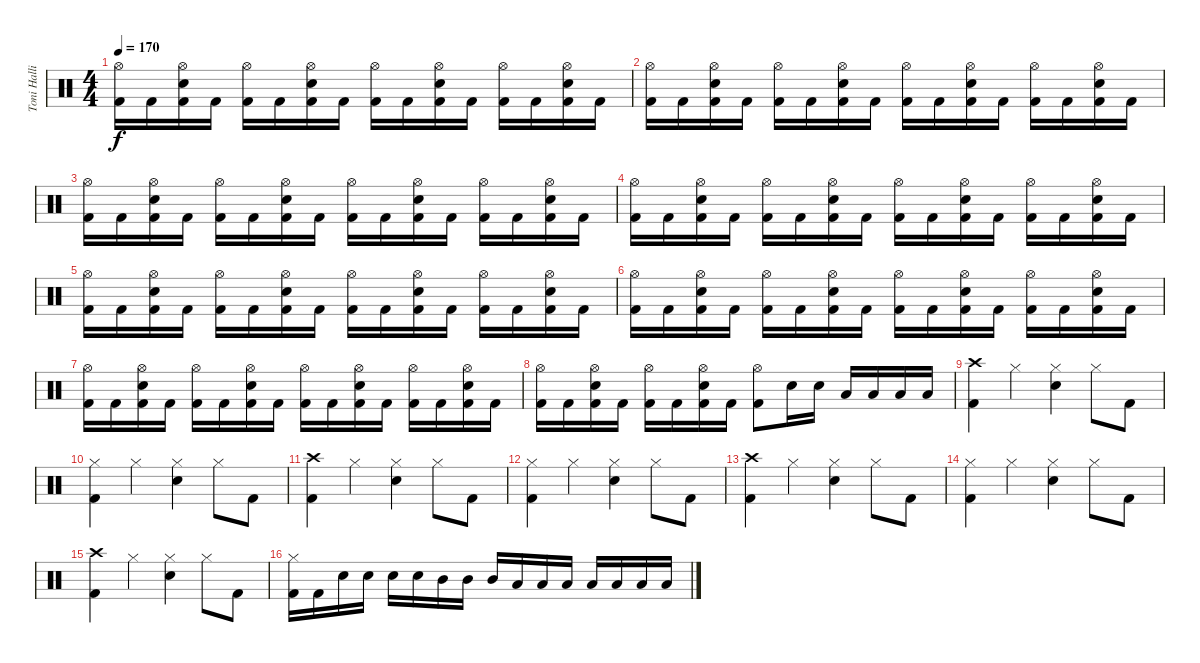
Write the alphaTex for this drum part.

\track ("Toni Hallio" "Toni Halli") {instrument percussion}
\staff {score}
\articulation defaults
\ts (4 4)
\tempo 170
\clef neutral
\ks c
("Hi-Hat (open)" "Kick (hit) 2").16{dy f} "Kick (hit) 2".16 ("Hi-Hat (open)" "Snare (hit) 2" "Kick (hit) 2").16 "Kick (hit) 2".16 ("Hi-Hat (open)" "Kick (hit) 2").16 "Kick (hit) 2".16 ("Hi-Hat (open)" "Snare (hit) 2" "Kick (hit) 2").16 "Kick (hit) 2".16 ("Hi-Hat (open)" "Kick (hit) 2").16 "Kick (hit) 2".16 ("Hi-Hat (open)" "Snare (hit) 2" "Kick (hit) 2").16 "Kick (hit) 2".16 ("Hi-Hat (open)" "Kick (hit) 2").16 "Kick (hit) 2".16 ("Hi-Hat (open)" "Snare (hit) 2" "Kick (hit) 2").16 "Kick (hit) 2".16 |
("Hi-Hat (open)" "Kick (hit) 2").16 "Kick (hit) 2".16 ("Hi-Hat (open)" "Snare (hit) 2" "Kick (hit) 2").16 "Kick (hit) 2".16 ("Hi-Hat (open)" "Kick (hit) 2").16 "Kick (hit) 2".16 ("Hi-Hat (open)" "Snare (hit) 2" "Kick (hit) 2").16 "Kick (hit) 2".16 ("Hi-Hat (open)" "Kick (hit) 2").16 "Kick (hit) 2".16 ("Hi-Hat (open)" "Snare (hit) 2" "Kick (hit) 2").16 "Kick (hit) 2".16 ("Hi-Hat (open)" "Kick (hit) 2").16 "Kick (hit) 2".16 ("Hi-Hat (open)" "Snare (hit) 2" "Kick (hit) 2").16 "Kick (hit) 2".16 |
("Hi-Hat (open)" "Kick (hit) 2").16 "Kick (hit) 2".16 ("Hi-Hat (open)" "Snare (hit) 2" "Kick (hit) 2").16 "Kick (hit) 2".16 ("Hi-Hat (open)" "Kick (hit) 2").16 "Kick (hit) 2".16 ("Hi-Hat (open)" "Snare (hit) 2" "Kick (hit) 2").16 "Kick (hit) 2".16 ("Hi-Hat (open)" "Kick (hit) 2").16 "Kick (hit) 2".16 ("Hi-Hat (open)" "Snare (hit) 2" "Kick (hit) 2").16 "Kick (hit) 2".16 ("Hi-Hat (open)" "Kick (hit) 2").16 "Kick (hit) 2".16 ("Hi-Hat (open)" "Snare (hit) 2" "Kick (hit) 2").16 "Kick (hit) 2".16 |
("Hi-Hat (open)" "Kick (hit) 2").16 "Kick (hit) 2".16 ("Hi-Hat (open)" "Snare (hit) 2" "Kick (hit) 2").16 "Kick (hit) 2".16 ("Hi-Hat (open)" "Kick (hit) 2").16 "Kick (hit) 2".16 ("Hi-Hat (open)" "Snare (hit) 2" "Kick (hit) 2").16 "Kick (hit) 2".16 ("Hi-Hat (open)" "Kick (hit) 2").16 "Kick (hit) 2".16 ("Hi-Hat (open)" "Snare (hit) 2" "Kick (hit) 2").16 "Kick (hit) 2".16 ("Hi-Hat (open)" "Kick (hit) 2").16 "Kick (hit) 2".16 ("Hi-Hat (open)" "Snare (hit) 2" "Kick (hit) 2").16 "Kick (hit) 2".16 |
("Hi-Hat (open)" "Kick (hit) 2").16 "Kick (hit) 2".16 ("Hi-Hat (open)" "Snare (hit) 2" "Kick (hit) 2").16 "Kick (hit) 2".16 ("Hi-Hat (open)" "Kick (hit) 2").16 "Kick (hit) 2".16 ("Hi-Hat (open)" "Snare (hit) 2" "Kick (hit) 2").16 "Kick (hit) 2".16 ("Hi-Hat (open)" "Kick (hit) 2").16 "Kick (hit) 2".16 ("Hi-Hat (open)" "Snare (hit) 2" "Kick (hit) 2").16 "Kick (hit) 2".16 ("Hi-Hat (open)" "Kick (hit) 2").16 "Kick (hit) 2".16 ("Hi-Hat (open)" "Snare (hit) 2" "Kick (hit) 2").16 "Kick (hit) 2".16 |
("Hi-Hat (open)" "Kick (hit) 2").16 "Kick (hit) 2".16 ("Hi-Hat (open)" "Snare (hit) 2" "Kick (hit) 2").16 "Kick (hit) 2".16 ("Hi-Hat (open)" "Kick (hit) 2").16 "Kick (hit) 2".16 ("Hi-Hat (open)" "Snare (hit) 2" "Kick (hit) 2").16 "Kick (hit) 2".16 ("Hi-Hat (open)" "Kick (hit) 2").16 "Kick (hit) 2".16 ("Hi-Hat (open)" "Snare (hit) 2" "Kick (hit) 2").16 "Kick (hit) 2".16 ("Hi-Hat (open)" "Kick (hit) 2").16 "Kick (hit) 2".16 ("Hi-Hat (open)" "Snare (hit) 2" "Kick (hit) 2").16 "Kick (hit) 2".16 |
("Hi-Hat (open)" "Kick (hit) 2").16 "Kick (hit) 2".16 ("Hi-Hat (open)" "Snare (hit) 2" "Kick (hit) 2").16 "Kick (hit) 2".16 ("Hi-Hat (open)" "Kick (hit) 2").16 "Kick (hit) 2".16 ("Hi-Hat (open)" "Snare (hit) 2" "Kick (hit) 2").16 "Kick (hit) 2".16 ("Hi-Hat (open)" "Kick (hit) 2").16 "Kick (hit) 2".16 ("Hi-Hat (open)" "Snare (hit) 2" "Kick (hit) 2").16 "Kick (hit) 2".16 ("Hi-Hat (open)" "Kick (hit) 2").16 "Kick (hit) 2".16 ("Hi-Hat (open)" "Snare (hit) 2" "Kick (hit) 2").16 "Kick (hit) 2".16 |
("Hi-Hat (open)" "Kick (hit) 2").16 "Kick (hit) 2".16 ("Hi-Hat (open)" "Snare (hit) 2" "Kick (hit) 2").16 "Kick (hit) 2".16 ("Hi-Hat (open)" "Kick (hit) 2").16 "Kick (hit) 2".16 ("Hi-Hat (open)" "Snare (hit) 2" "Kick (hit) 2").16 "Kick (hit) 2".16 ("Hi-Hat (open)" "Kick (hit) 2").8 "Snare (hit) 2".16 "Snare (hit) 2".16 "Low Tom (hit)".16 "Low Tom (hit)".16 "Low Floor Tom (hit)".16 "Low Floor Tom (hit)".16 |
("Crash high (hit)" "Kick (hit) 2").4 "Hi-Hat (closed)".4 ("Hi-Hat (closed)" "Snare (hit) 2").4 "Hi-Hat (closed)".8 "Kick (hit) 2".8 |
("Hi-Hat (closed)" "Kick (hit) 2").4 "Hi-Hat (closed)".4 ("Hi-Hat (closed)" "Snare (hit) 2").4 "Hi-Hat (closed)".8 "Kick (hit) 2".8 |
("Crash high (hit)" "Kick (hit) 2").4 "Hi-Hat (closed)".4 ("Hi-Hat (closed)" "Snare (hit) 2").4 "Hi-Hat (closed)".8 "Kick (hit) 2".8 |
("Hi-Hat (closed)" "Kick (hit) 2").4 "Hi-Hat (closed)".4 ("Hi-Hat (closed)" "Snare (hit) 2").4 "Hi-Hat (closed)".8 "Kick (hit) 2".8 |
("Crash high (hit)" "Kick (hit) 2").4 "Hi-Hat (closed)".4 ("Hi-Hat (closed)" "Snare (hit) 2").4 "Hi-Hat (closed)".8 "Kick (hit) 2".8 |
("Hi-Hat (closed)" "Kick (hit) 2").4 "Hi-Hat (closed)".4 ("Hi-Hat (closed)" "Snare (hit) 2").4 "Hi-Hat (closed)".8 "Kick (hit) 2".8 |
("Crash high (hit)" "Kick (hit) 2").4 "Hi-Hat (closed)".4 ("Hi-Hat (closed)" "Snare (hit) 2").4 "Hi-Hat (closed)".8 "Kick (hit) 2".8 |
("Hi-Hat (closed)" "Kick (hit) 2").16 "Kick (hit) 2".16 "Snare (hit) 2".16 "Snare (hit) 2".16 "Snare (hit) 2".16 "Snare (hit) 2".16 "Mid Tom (hit)".16 "Mid Tom (hit)".16 "Mid Tom (hit)".16 "Low Tom (hit)".16 "Low Tom (hit)".16 "Low Tom (hit)".16 "Low Floor Tom (hit)".16 "Low Floor Tom (hit)".16 "Low Floor Tom (hit)".16 "Low Floor Tom (hit)".16
